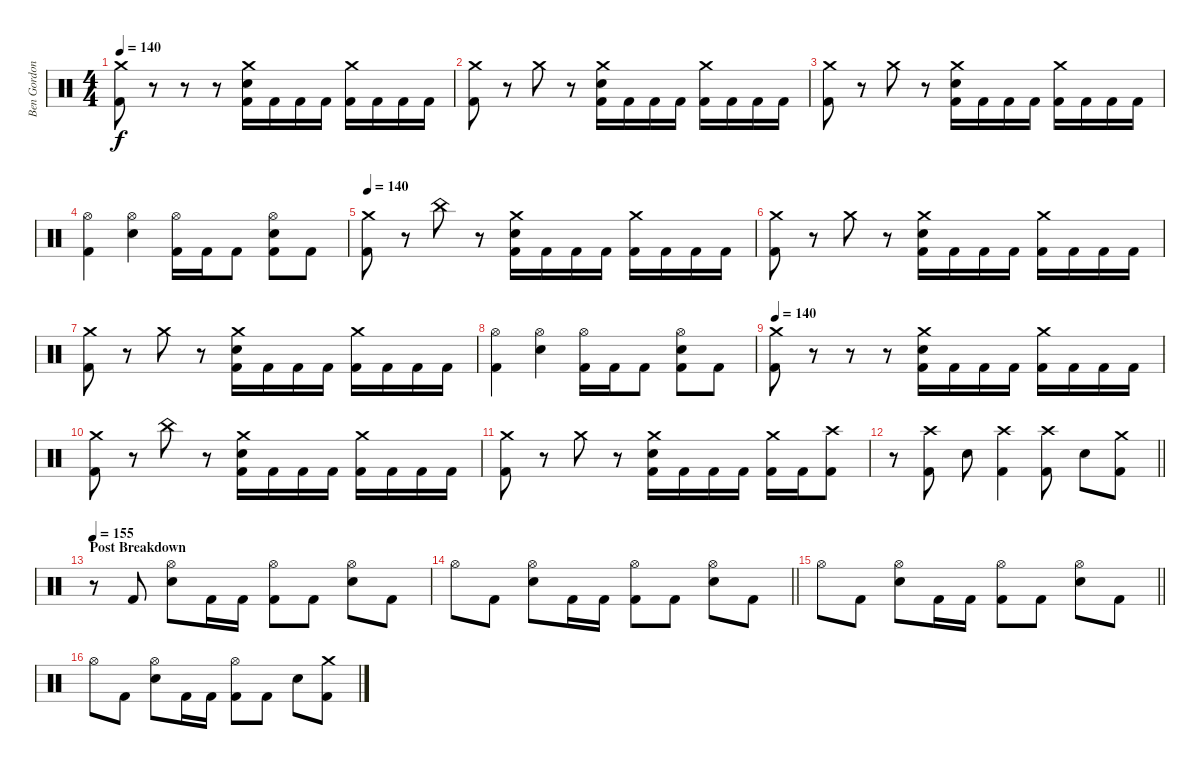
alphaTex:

\track ("Ben Gordon" "Ben Gordon") {instrument percussion}
\staff {score}
\articulation defaults
\ts (4 4)
\tempo 140
\clef neutral
\ks c
("Crash medium (hit)" "Kick (hit) 2").8{dy f} r.8 r.8 r.8 ("Crash medium (hit)" "Electric Snare (hit)" "Kick (hit) 2").16 "Kick (hit) 2".16 "Kick (hit) 2".16 "Kick (hit) 2".16 ("Crash medium (hit)" "Kick (hit) 2").16 "Kick (hit) 2".16 "Kick (hit) 2".16 "Kick (hit) 2".16 |
("Crash medium (hit)" "Kick (hit) 2").8 r.8 "Crash medium (hit)".8 r.8 ("Crash medium (hit)" "Electric Snare (hit)" "Kick (hit) 2").16 "Kick (hit) 2".16 "Kick (hit) 2".16 "Kick (hit) 2".16 ("Crash medium (hit)" "Kick (hit) 2").16 "Kick (hit) 2".16 "Kick (hit) 2".16 "Kick (hit) 2".16 |
("Crash medium (hit)" "Kick (hit) 2").8 r.8 "Crash medium (hit)".8 r.8 ("Crash medium (hit)" "Electric Snare (hit)" "Kick (hit) 2").16 "Kick (hit) 2".16 "Kick (hit) 2".16 "Kick (hit) 2".16 ("Crash medium (hit)" "Kick (hit) 2").16 "Kick (hit) 2".16 "Kick (hit) 2".16 "Kick (hit) 2".16 |
("Hi-Hat (open)" "Kick (hit) 2").4 ("Hi-Hat (open)" "Electric Snare (hit)").4 ("Hi-Hat (open)" "Kick (hit) 2").16 "Kick (hit) 2".16 "Kick (hit) 2".8 ("Hi-Hat (open)" "Electric Snare (hit)" "Kick (hit) 2").8 "Kick (hit) 2".8 |
\tempo 140
("Crash medium (hit)" "Kick (hit) 2").8 r.8 "China (hit)".8 r.8 ("Crash medium (hit)" "Electric Snare (hit)" "Kick (hit) 2").16 "Kick (hit) 2".16 "Kick (hit) 2".16 "Kick (hit) 2".16 ("Crash medium (hit)" "Kick (hit) 2").16 "Kick (hit) 2".16 "Kick (hit) 2".16 "Kick (hit) 2".16 |
("Crash medium (hit)" "Kick (hit) 2").8 r.8 "Crash medium (hit)".8 r.8 ("Crash medium (hit)" "Electric Snare (hit)" "Kick (hit) 2").16 "Kick (hit) 2".16 "Kick (hit) 2".16 "Kick (hit) 2".16 ("Crash medium (hit)" "Kick (hit) 2").16 "Kick (hit) 2".16 "Kick (hit) 2".16 "Kick (hit) 2".16 |
("Crash medium (hit)" "Kick (hit) 2").8 r.8 "Crash medium (hit)".8 r.8 ("Crash medium (hit)" "Electric Snare (hit)" "Kick (hit) 2").16 "Kick (hit) 2".16 "Kick (hit) 2".16 "Kick (hit) 2".16 ("Crash medium (hit)" "Kick (hit) 2").16 "Kick (hit) 2".16 "Kick (hit) 2".16 "Kick (hit) 2".16 |
("Hi-Hat (open)" "Kick (hit) 2").4 ("Hi-Hat (open)" "Electric Snare (hit)").4 ("Hi-Hat (open)" "Kick (hit) 2").16 "Kick (hit) 2".16 "Kick (hit) 2".8 ("Hi-Hat (open)" "Electric Snare (hit)" "Kick (hit) 2").8 "Kick (hit) 2".8 |
\tempo 140
("Crash medium (hit)" "Kick (hit) 2").8 r.8 r.8 r.8 ("Crash medium (hit)" "Electric Snare (hit)" "Kick (hit) 2").16 "Kick (hit) 2".16 "Kick (hit) 2".16 "Kick (hit) 2".16 ("Crash medium (hit)" "Kick (hit) 2").16 "Kick (hit) 2".16 "Kick (hit) 2".16 "Kick (hit) 2".16 |
("Crash medium (hit)" "Kick (hit) 2").8 r.8 "China (hit)".8 r.8 ("Crash medium (hit)" "Electric Snare (hit)" "Kick (hit) 2").16 "Kick (hit) 2".16 "Kick (hit) 2".16 "Kick (hit) 2".16 ("Crash medium (hit)" "Kick (hit) 2").16 "Kick (hit) 2".16 "Kick (hit) 2".16 "Kick (hit) 2".16 |
("Crash medium (hit)" "Kick (hit) 2").8 r.8 "Crash medium (hit)".8 r.8 ("Crash medium (hit)" "Electric Snare (hit)" "Kick (hit) 2").16 "Kick (hit) 2".16 "Kick (hit) 2".16 "Kick (hit) 2".16 ("Crash medium (hit)" "Kick (hit) 2").16 "Kick (hit) 2".16 ("Crash high (hit)" "Kick (hit) 2").8 |
\barLineRight lightlight
r.8 ("Crash high (hit)" "Kick (hit) 2").8 "Electric Snare (hit)".8 ("Crash high (hit)" "Kick (hit) 2").4 ("Crash high (hit)" "Kick (hit) 2").8 "Electric Snare (hit)".8 ("Crash medium (hit)" "Kick (hit) 2").8 |
\section ("" "Post Breakdown")
\tempo 155
r.8 "Kick (hit) 2".8 ("Hi-Hat (open)" "Electric Snare (hit)").8 "Kick (hit) 2".16 "Kick (hit) 2".16 ("Hi-Hat (open)" "Kick (hit) 2").8 "Kick (hit) 2".8 ("Hi-Hat (open)" "Electric Snare (hit)").8 "Kick (hit) 2".8 |
\barLineRight lightlight "Hi-Hat (open)".8 "Kick (hit) 2".8
("Hi-Hat (open)" "Electric Snare (hit)").8 "Kick (hit) 2".16 "Kick (hit) 2".16 ("Hi-Hat (open)" "Kick (hit) 2").8 "Kick (hit) 2".8 ("Hi-Hat (open)" "Electric Snare (hit)").8 "Kick (hit) 2".8 |
\barLineRight lightlight "Hi-Hat (open)".8 "Kick (hit) 2".8
("Hi-Hat (open)" "Electric Snare (hit)").8 "Kick (hit) 2".16 "Kick (hit) 2".16 ("Hi-Hat (open)" "Kick (hit) 2").8 "Kick (hit) 2".8 ("Hi-Hat (open)" "Electric Snare (hit)").8 "Kick (hit) 2".8 |
"Hi-Hat (open)".8 "Kick (hit) 2".8 ("Hi-Hat (open)" "Electric Snare (hit)").8 "Kick (hit) 2".16 "Kick (hit) 2".16 ("Hi-Hat (open)" "Kick (hit) 2").8 "Kick (hit) 2".8 "Electric Snare (hit)".8 ("Crash medium (hit)" "Kick (hit) 2").8
